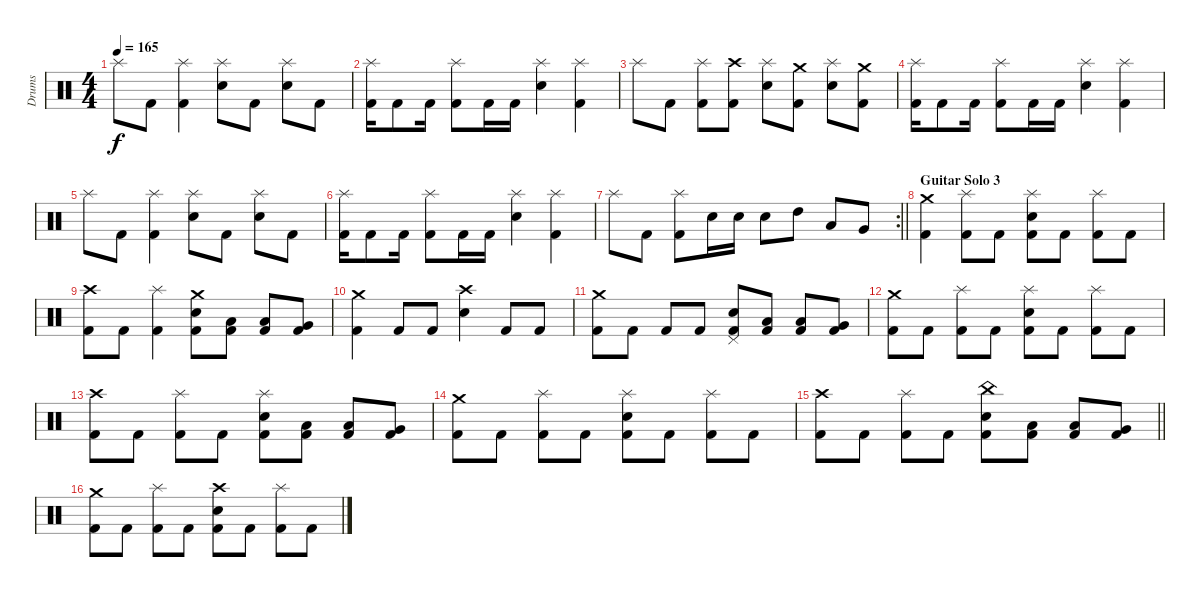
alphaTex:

\track ("Drums" "Drums") {instrument percussion}
\staff {score}
\articulation defaults
\ts (4 4)
\tempo 165
\clef neutral
\ks c "Splash (hit)".8{dy f} "Kick (hit) 2".8
("Splash (hit)" "Kick (hit) 2").4 ("Splash (hit)" "Snare (hit) 2").8 "Kick (hit) 2".8 ("Splash (hit)" "Snare (hit) 2").8 "Kick (hit) 2".8 |
("Splash (hit)" "Kick (hit) 2").16 "Kick (hit) 2".8 "Kick (hit) 2".16 ("Splash (hit)" "Kick (hit) 2").8 "Kick (hit) 2".16 "Kick (hit) 2".16 ("Splash (hit)" "Snare (hit) 2").4 ("Splash (hit)" "Kick (hit) 2").4 |
"Splash (hit)".8 "Kick (hit) 2".8 ("Splash (hit)" "Kick (hit) 2").8 ("Crash high (hit)" "Kick (hit) 2").8 ("Splash (hit)" "Snare (hit) 2").8 ("Crash medium (hit)" "Kick (hit) 2").8 ("Splash (hit)" "Snare (hit) 2").8 ("Crash medium (hit)" "Kick (hit) 2").8 |
("Splash (hit)" "Kick (hit) 2").16 "Kick (hit) 2".8 "Kick (hit) 2".16 ("Splash (hit)" "Kick (hit) 2").8 "Kick (hit) 2".16 "Kick (hit) 2".16 ("Splash (hit)" "Snare (hit) 2").4 ("Splash (hit)" "Kick (hit) 2").4 |
"Splash (hit)".8 "Kick (hit) 2".8 ("Splash (hit)" "Kick (hit) 2").4 ("Splash (hit)" "Snare (hit) 2").8 "Kick (hit) 2".8 ("Splash (hit)" "Snare (hit) 2").8 "Kick (hit) 2".8 |
("Splash (hit)" "Kick (hit) 2").16 "Kick (hit) 2".8 "Kick (hit) 2".16 ("Splash (hit)" "Kick (hit) 2").8 "Kick (hit) 2".16 "Kick (hit) 2".16 ("Splash (hit)" "Snare (hit) 2").4 ("Splash (hit)" "Kick (hit) 2").4 |
\rc 2
\barLineRight lightlight "Splash (hit)".8 "Kick (hit) 2".8
("Splash (hit)" "Kick (hit) 2").8 "Snare (hit) 2".16 "Snare (hit) 2".16 "Snare (hit) 2".8 "High Tom (hit)".8 "Low Tom (hit)".8 "Very Low Tom (hit)".8 |
\section ("" "Guitar Solo 3")
("Crash medium (hit)" "Kick (hit) 2").4 ("Splash (hit)" "Kick (hit) 2").8 "Kick (hit) 2".8 ("Splash (hit)" "Snare (hit) 2" "Kick (hit) 2").8 "Kick (hit) 2".8 ("Splash (hit)" "Kick (hit) 2").8 "Kick (hit) 2".8 |
("Crash high (hit)" "Kick (hit) 2").8 "Kick (hit) 2".8 ("Splash (hit)" "Kick (hit) 2").4 ("Crash medium (hit)" "Snare (hit) 2" "Kick (hit) 2").8 ("Low Floor Tom (hit)" "Kick (hit) 2").8 ("Low Tom (hit)" "Kick (hit) 2").8 ("Very Low Tom (hit)" "Kick (hit) 2").8 |
("Crash medium (hit)" "Kick (hit) 2").4 "Kick (hit) 2".8 "Kick (hit) 2".8 ("Crash high (hit)" "Snare (hit) 2").4 "Kick (hit) 2".8 "Kick (hit) 2".8 |
("Crash medium (hit)" "Kick (hit) 2").8 "Kick (hit) 2".8 "Kick (hit) 2".8 "Kick (hit) 2".8 ("Pedal Hi-Hat (hit)" "Snare (hit) 2" "Kick (hit) 2").8 ("Low Floor Tom (hit)" "Kick (hit) 2").8 ("Low Tom (hit)" "Kick (hit) 2").8 ("Very Low Tom (hit)" "Kick (hit) 2").8 |
("Crash medium (hit)" "Kick (hit) 2").8 "Kick (hit) 2".8 ("Splash (hit)" "Kick (hit) 2").8 "Kick (hit) 2".8 ("Splash (hit)" "Snare (hit) 2" "Kick (hit) 2").8 "Kick (hit) 2".8 ("Splash (hit)" "Kick (hit) 2").8 "Kick (hit) 2".8 |
("Crash high (hit)" "Kick (hit) 2").8 "Kick (hit) 2".8 ("Splash (hit)" "Kick (hit) 2").8 "Kick (hit) 2".8 ("Splash (hit)" "Snare (hit) 2" "Kick (hit) 2").8 ("Low Tom (hit)" "Kick (hit) 2").8 ("Low Tom (hit)" "Kick (hit) 2").8 ("Very Low Tom (hit)" "Kick (hit) 2").8 |
("Crash medium (hit)" "Kick (hit) 2").8 "Kick (hit) 2".8 ("Splash (hit)" "Kick (hit) 2").8 "Kick (hit) 2".8 ("Splash (hit)" "Snare (hit) 2" "Kick (hit) 2").8 "Kick (hit) 2".8 ("Splash (hit)" "Kick (hit) 2").8 "Kick (hit) 2".8 |
\barLineRight lightlight
("Crash high (hit)" "Kick (hit) 2").8 "Kick (hit) 2".8 ("Splash (hit)" "Kick (hit) 2").8 "Kick (hit) 2".8 ("China (hit)" "Snare (hit) 2" "Kick (hit) 2").8 ("Low Tom (hit)" "Kick (hit) 2").8 ("Low Tom (hit)" "Kick (hit) 2").8 ("Very Low Tom (hit)" "Kick (hit) 2").8 |
("Crash medium (hit)" "Kick (hit) 2").8 "Kick (hit) 2".8 ("Splash (hit)" "Kick (hit) 2").8 "Kick (hit) 2".8 ("Crash high (hit)" "Snare (hit) 2" "Kick (hit) 2").8 "Kick (hit) 2".8 ("Splash (hit)" "Kick (hit) 2").8 "Kick (hit) 2".8
